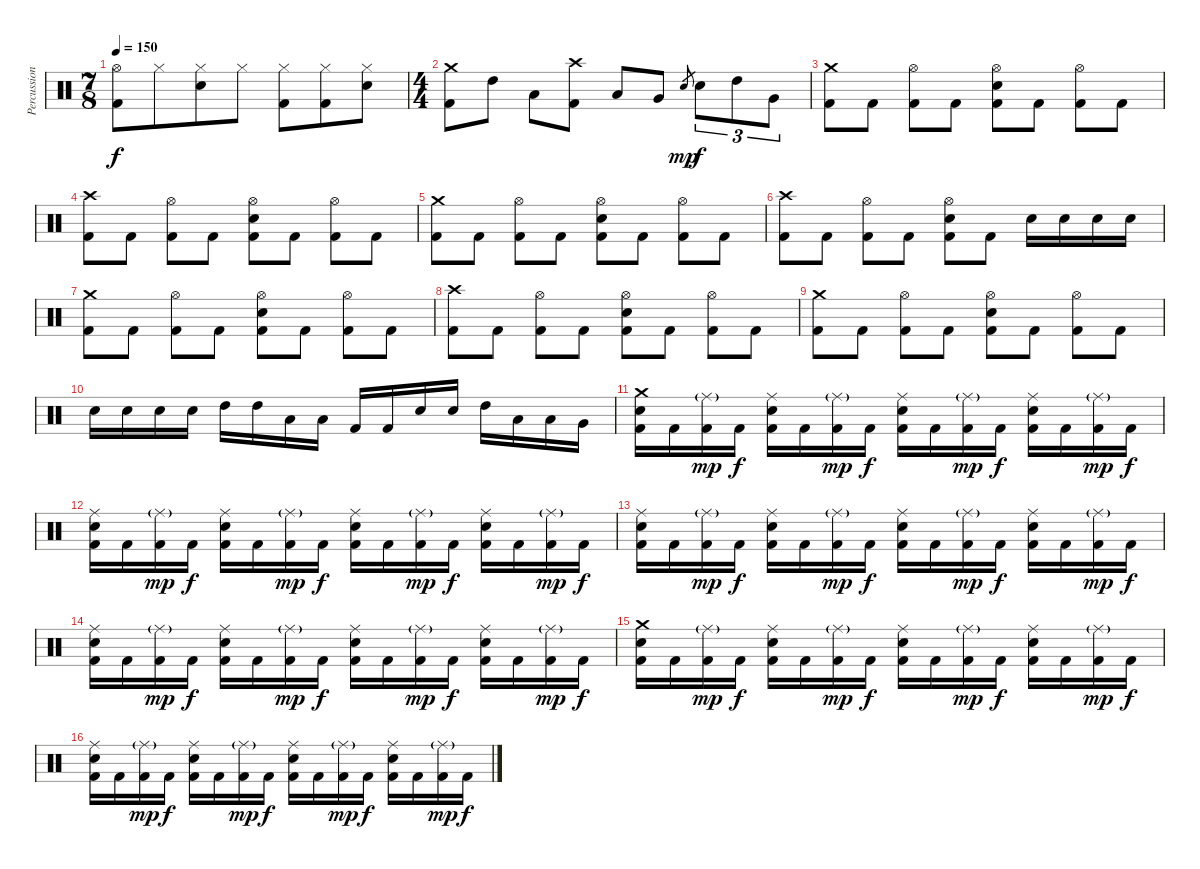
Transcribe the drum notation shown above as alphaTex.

\track ("Percussions" "Percussion") {instrument percussion}
\staff {score}
\articulation defaults
\ts (7 8)
\tempo 150
\clef neutral
\ks c
("Hi-Hat (open)" "Kick (hit) 2").8{dy f} "Hi-Hat (closed)".8 ("Hi-Hat (closed)" "Snare (hit) 2").8 "Hi-Hat (closed)".8 ("Hi-Hat (closed)" "Kick (hit) 2").8 ("Hi-Hat (closed)" "Kick (hit) 2").8 ("Hi-Hat (closed)" "Snare (hit) 2").8 |
\ts (4 4)
("Crash medium (hit)" "Kick (hit) 2").8 "High Tom (hit)".8 "Low Tom (hit)".8 ("Crash high (hit)" "Kick (hit) 2").8 "Low Tom (hit)".8 "Very Low Tom (hit)".8 "Snare (hit) 2".8{gr dy mp} "Snare (hit) 2".8{tu (3 2) dy f} "High Tom (hit)".8{tu (3 2)} "Very Low Tom (hit)".8{tu (3 2)} |
("Crash medium (hit)" "Kick (hit) 2").8 "Kick (hit) 2".8 ("Hi-Hat (open)" "Kick (hit) 2").8 "Kick (hit) 2".8 ("Hi-Hat (open)" "Snare (hit) 2" "Kick (hit) 2").8 "Kick (hit) 2".8 ("Hi-Hat (open)" "Kick (hit) 2").8 "Kick (hit) 2".8 |
("Crash high (hit)" "Kick (hit) 2").8 "Kick (hit) 2".8 ("Hi-Hat (open)" "Kick (hit) 2").8 "Kick (hit) 2".8 ("Hi-Hat (open)" "Snare (hit) 2" "Kick (hit) 2").8 "Kick (hit) 2".8 ("Hi-Hat (open)" "Kick (hit) 2").8 "Kick (hit) 2".8 |
("Crash medium (hit)" "Kick (hit) 2").8 "Kick (hit) 2".8 ("Hi-Hat (open)" "Kick (hit) 2").8 "Kick (hit) 2".8 ("Hi-Hat (open)" "Snare (hit) 2" "Kick (hit) 2").8 "Kick (hit) 2".8 ("Hi-Hat (open)" "Kick (hit) 2").8 "Kick (hit) 2".8 |
("Crash high (hit)" "Kick (hit) 2").8 "Kick (hit) 2".8 ("Hi-Hat (open)" "Kick (hit) 2").8 "Kick (hit) 2".8 ("Hi-Hat (open)" "Snare (hit) 2" "Kick (hit) 2").8 "Kick (hit) 2".8 "Snare (hit) 2".16 "Snare (hit) 2".16 "Snare (hit) 2".16 "Snare (hit) 2".16 |
("Crash medium (hit)" "Kick (hit) 2").8 "Kick (hit) 2".8 ("Hi-Hat (open)" "Kick (hit) 2").8 "Kick (hit) 2".8 ("Hi-Hat (open)" "Snare (hit) 2" "Kick (hit) 2").8 "Kick (hit) 2".8 ("Hi-Hat (open)" "Kick (hit) 2").8 "Kick (hit) 2".8 |
("Crash high (hit)" "Kick (hit) 2").8 "Kick (hit) 2".8 ("Hi-Hat (open)" "Kick (hit) 2").8 "Kick (hit) 2".8 ("Hi-Hat (open)" "Snare (hit) 2" "Kick (hit) 2").8 "Kick (hit) 2".8 ("Hi-Hat (open)" "Kick (hit) 2").8 "Kick (hit) 2".8 |
("Crash medium (hit)" "Kick (hit) 2").8 "Kick (hit) 2".8 ("Hi-Hat (open)" "Kick (hit) 2").8 "Kick (hit) 2".8 ("Hi-Hat (open)" "Snare (hit) 2" "Kick (hit) 2").8 "Kick (hit) 2".8 ("Hi-Hat (open)" "Kick (hit) 2").8 "Kick (hit) 2".8 |
"Snare (hit) 2".16 "Snare (hit) 2".16 "Snare (hit) 2".16 "Snare (hit) 2".16 "High Tom (hit)".16 "High Tom (hit)".16 "Low Tom (hit)".16 "Low Tom (hit)".16 "Kick (hit) 2".16 "Kick (hit) 2".16 "Snare (hit) 2".16 "Snare (hit) 2".16 "High Tom (hit)".16 "Low Tom (hit)".16 "Low Tom (hit)".16 "Very Low Tom (hit)".16 |
("Crash medium (hit)" "Snare (hit) 2" "Kick (hit) 2").16 "Kick (hit) 2".16 ("Ride (middle)"{g} "Kick (hit) 2").16{dy mp} "Kick (hit) 2".16{dy f} ("Ride (middle)" "Snare (hit) 2" "Kick (hit) 2").16 "Kick (hit) 2".16 ("Ride (middle)"{g} "Kick (hit) 2").16{dy mp} "Kick (hit) 2".16{dy f} ("Ride (middle)" "Snare (hit) 2" "Kick (hit) 2").16 "Kick (hit) 2".16 ("Ride (middle)"{g} "Kick (hit) 2").16{dy mp} "Kick (hit) 2".16{dy f} ("Ride (middle)" "Snare (hit) 2" "Kick (hit) 2").16 "Kick (hit) 2".16 ("Ride (middle)"{g} "Kick (hit) 2").16{dy mp} "Kick (hit) 2".16{dy f} |
("Ride (middle)" "Snare (hit) 2" "Kick (hit) 2").16 "Kick (hit) 2".16 ("Ride (middle)"{g} "Kick (hit) 2").16{dy mp} "Kick (hit) 2".16{dy f} ("Ride (middle)" "Snare (hit) 2" "Kick (hit) 2").16 "Kick (hit) 2".16 ("Ride (middle)"{g} "Kick (hit) 2").16{dy mp} "Kick (hit) 2".16{dy f} ("Ride (middle)" "Snare (hit) 2" "Kick (hit) 2").16 "Kick (hit) 2".16 ("Ride (middle)"{g} "Kick (hit) 2").16{dy mp} "Kick (hit) 2".16{dy f} ("Ride (middle)" "Snare (hit) 2" "Kick (hit) 2").16 "Kick (hit) 2".16 ("Ride (middle)"{g} "Kick (hit) 2").16{dy mp} "Kick (hit) 2".16{dy f} |
("Ride (middle)" "Snare (hit) 2" "Kick (hit) 2").16 "Kick (hit) 2".16 ("Ride (middle)"{g} "Kick (hit) 2").16{dy mp} "Kick (hit) 2".16{dy f} ("Ride (middle)" "Snare (hit) 2" "Kick (hit) 2").16 "Kick (hit) 2".16 ("Ride (middle)"{g} "Kick (hit) 2").16{dy mp} "Kick (hit) 2".16{dy f} ("Ride (middle)" "Snare (hit) 2" "Kick (hit) 2").16 "Kick (hit) 2".16 ("Ride (middle)"{g} "Kick (hit) 2").16{dy mp} "Kick (hit) 2".16{dy f} ("Ride (middle)" "Snare (hit) 2" "Kick (hit) 2").16 "Kick (hit) 2".16 ("Ride (middle)"{g} "Kick (hit) 2").16{dy mp} "Kick (hit) 2".16{dy f} |
("Ride (middle)" "Snare (hit) 2" "Kick (hit) 2").16 "Kick (hit) 2".16 ("Ride (middle)"{g} "Kick (hit) 2").16{dy mp} "Kick (hit) 2".16{dy f} ("Ride (middle)" "Snare (hit) 2" "Kick (hit) 2").16 "Kick (hit) 2".16 ("Ride (middle)"{g} "Kick (hit) 2").16{dy mp} "Kick (hit) 2".16{dy f} ("Ride (middle)" "Snare (hit) 2" "Kick (hit) 2").16 "Kick (hit) 2".16 ("Ride (middle)"{g} "Kick (hit) 2").16{dy mp} "Kick (hit) 2".16{dy f} ("Ride (middle)" "Snare (hit) 2" "Kick (hit) 2").16 "Kick (hit) 2".16 ("Ride (middle)"{g} "Kick (hit) 2").16{dy mp} "Kick (hit) 2".16{dy f} |
("Crash medium (hit)" "Snare (hit) 2" "Kick (hit) 2").16 "Kick (hit) 2".16 ("Ride (middle)"{g} "Kick (hit) 2").16{dy mp} "Kick (hit) 2".16{dy f} ("Ride (middle)" "Snare (hit) 2" "Kick (hit) 2").16 "Kick (hit) 2".16 ("Ride (middle)"{g} "Kick (hit) 2").16{dy mp} "Kick (hit) 2".16{dy f} ("Ride (middle)" "Snare (hit) 2" "Kick (hit) 2").16 "Kick (hit) 2".16 ("Ride (middle)"{g} "Kick (hit) 2").16{dy mp} "Kick (hit) 2".16{dy f} ("Ride (middle)" "Snare (hit) 2" "Kick (hit) 2").16 "Kick (hit) 2".16 ("Ride (middle)"{g} "Kick (hit) 2").16{dy mp} "Kick (hit) 2".16{dy f} |
("Ride (middle)" "Snare (hit) 2" "Kick (hit) 2").16 "Kick (hit) 2".16 ("Ride (middle)"{g} "Kick (hit) 2").16{dy mp} "Kick (hit) 2".16{dy f} ("Ride (middle)" "Snare (hit) 2" "Kick (hit) 2").16 "Kick (hit) 2".16 ("Ride (middle)"{g} "Kick (hit) 2").16{dy mp} "Kick (hit) 2".16{dy f} ("Ride (middle)" "Snare (hit) 2" "Kick (hit) 2").16 "Kick (hit) 2".16 ("Ride (middle)"{g} "Kick (hit) 2").16{dy mp} "Kick (hit) 2".16{dy f} ("Ride (middle)" "Snare (hit) 2" "Kick (hit) 2").16 "Kick (hit) 2".16 ("Ride (middle)"{g} "Kick (hit) 2").16{dy mp} "Kick (hit) 2".16{dy f}
